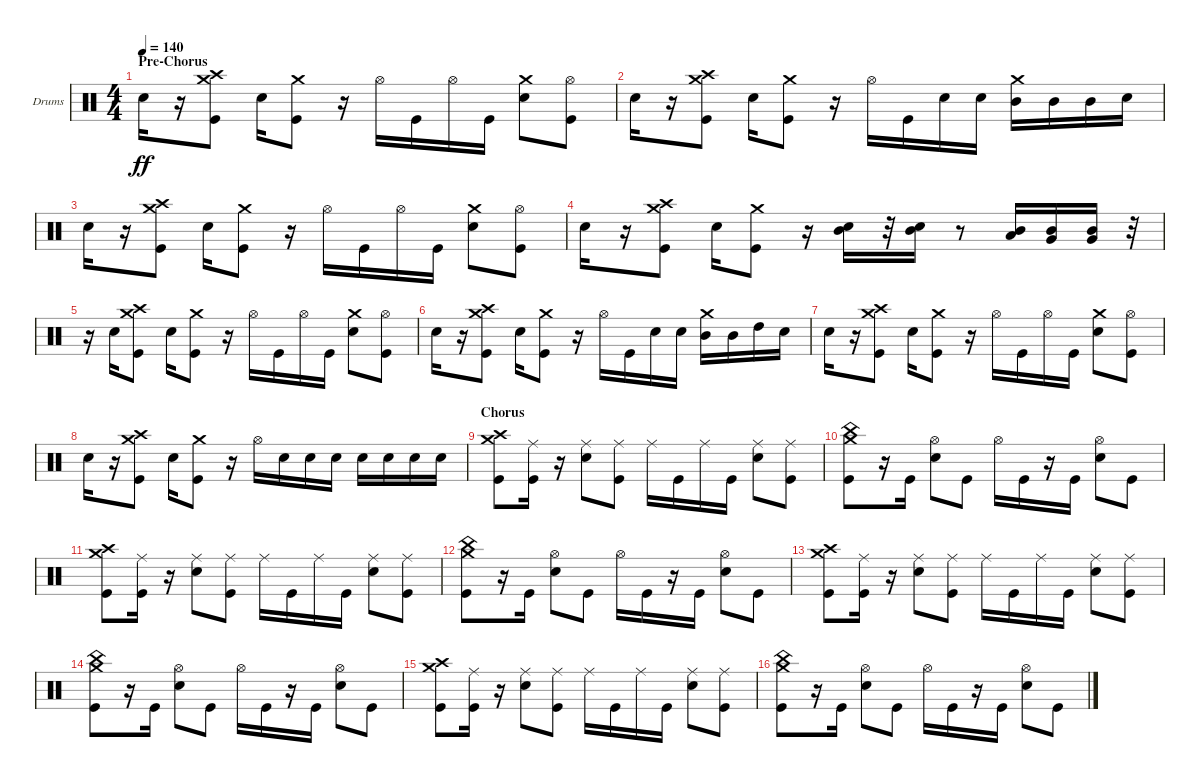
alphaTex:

\defaultSystemsLayout 4
\bracketExtendMode nobrackets
\firstSystemTrackNameOrientation horizontal
\otherSystemsTrackNameOrientation horizontal
\track ("Dave Abbruzzese" "Drums") {solo instrument percussion}
\staff {score}
\articulation defaults
\ts (4 4)
\section ("" "Pre-Chorus")
\tempo 140
\clef neutral
\ks c "Snare (hit) 2".16{dy ff}
r.16 ("Crash high (hit)" "Kick (hit)" "Crash medium (hit)").8 "Snare (hit) 2".16 ("Crash medium (hit)" "Kick (hit)").8 r.16 "Hi-Hat (open)".16 "Kick (hit)".16 "Hi-Hat (open)".16 "Kick (hit)".16 ("Snare (hit) 2" "Crash medium (hit)").8 ("Kick (hit)" "Hi-Hat (open)").8 |
"Snare (hit) 2".16 r.16 ("Crash high (hit)" "Kick (hit)" "Crash medium (hit)").8 "Snare (hit) 2".16 ("Crash medium (hit)" "Kick (hit)").8 r.16 "Hi-Hat (open)".16 "Kick (hit)".16 "Snare (hit) 2".16 "Snare (hit) 2".16 ("Mid Tom (hit)" "Crash medium (hit)").16 "Mid Tom (hit)".16 "Mid Tom (hit)".16 "Snare (hit) 2".16 |
"Snare (hit) 2".16 r.16 ("Crash high (hit)" "Kick (hit)" "Crash medium (hit)").8 "Snare (hit) 2".16 ("Crash medium (hit)" "Kick (hit)").8 r.16 "Hi-Hat (open)".16 "Kick (hit)".16 "Hi-Hat (open)".16 "Kick (hit)".16 ("Snare (hit) 2" "Crash medium (hit)").8 ("Kick (hit)" "Hi-Hat (open)").8 |
"Snare (hit) 2".16 r.16 ("Crash high (hit)" "Kick (hit)" "Crash medium (hit)").8 "Snare (hit) 2".16 ("Crash medium (hit)" "Kick (hit)").8 r.16 ("Mid Tom (hit)" "Snare (hit) 2").16 r.32 ("Mid Tom (hit)" "Snare (hit) 2").16 r.8 ("Low Tom (hit)" "Mid Tom (hit)").16 ("Very Low Tom (hit)" "Mid Tom (hit)").16 ("Very Low Tom (hit)" "Mid Tom (hit)").16 r.32 |
r.16 "Snare (hit) 2".16 ("Crash high (hit)" "Kick (hit)" "Crash medium (hit)").8 "Snare (hit) 2".16 ("Crash medium (hit)" "Kick (hit)").8 r.16 "Hi-Hat (open)".16 "Kick (hit)".16 "Hi-Hat (open)".16 "Kick (hit)".16 ("Snare (hit) 2" "Crash medium (hit)").8 ("Kick (hit)" "Hi-Hat (open)").8 |
"Snare (hit) 2".16 r.16 ("Crash high (hit)" "Kick (hit)" "Crash medium (hit)").8 "Snare (hit) 2".16 ("Crash medium (hit)" "Kick (hit)").8 r.16 "Hi-Hat (open)".16 "Kick (hit)".16 "Snare (hit) 2".16 "Snare (hit) 2".16 ("Mid Tom (hit)" "Crash medium (hit)").16 "Mid Tom (hit)".16 "High Tom (hit)".16 "Snare (hit) 2".16 |
"Snare (hit) 2".16 r.16 ("Crash high (hit)" "Kick (hit)" "Crash medium (hit)").8 "Snare (hit) 2".16 ("Crash medium (hit)" "Kick (hit)").8 r.16 "Hi-Hat (open)".16 "Kick (hit)".16 "Hi-Hat (open)".16 "Kick (hit)".16 ("Snare (hit) 2" "Crash medium (hit)").8 ("Kick (hit)" "Hi-Hat (open)").8 |
"Snare (hit) 2".16 r.16 ("Crash high (hit)" "Kick (hit)" "Crash medium (hit)").8 "Snare (hit) 2".16 ("Crash medium (hit)" "Kick (hit)").8 r.16 "Hi-Hat (open)".16 "Snare (hit) 2".16 "Snare (hit) 2".16 "Snare (hit) 2".16 "Snare (hit) 2".16 "Snare (hit) 2".16 "Snare (hit) 2".16 "Snare (hit) 2".16 |
\section ("" "Chorus")
("Crash high (hit)" "Kick (hit)" "Crash medium (hit)").8 ("Kick (hit)" "Ride (middle)").16 r.16 ("Snare (hit) 2" "Ride (middle)").8 ("Kick (hit)" "Ride (middle)").8 "Ride (middle)".16 "Kick (hit)".16 "Ride (middle)".16 "Kick (hit)".16 ("Snare (hit) 2" "Ride (middle)").8 ("Kick (hit)" "Ride (middle)").8 |
("China (hit)" "Kick (hit)" "Crash medium (hit)").8 r.16 "Kick (hit)".16 ("Snare (hit) 2" "Hi-Hat (open)").8 "Kick (hit)".8 "Hi-Hat (open)".16 "Kick (hit)".16 r.16 "Kick (hit)".16 ("Snare (hit) 2" "Hi-Hat (open)").8 "Kick (hit)".8 |
("Crash high (hit)" "Kick (hit)" "Crash medium (hit)").8 ("Kick (hit)" "Ride (middle)").16 r.16 ("Snare (hit) 2" "Ride (middle)").8 ("Kick (hit)" "Ride (middle)").8 "Ride (middle)".16 "Kick (hit)".16 "Ride (middle)".16 "Kick (hit)".16 ("Snare (hit) 2" "Ride (middle)").8 ("Kick (hit)" "Ride (middle)").8 |
("China (hit)" "Kick (hit)" "Crash medium (hit)").8 r.16 "Kick (hit)".16 ("Snare (hit) 2" "Hi-Hat (open)").8 "Kick (hit)".8 "Hi-Hat (open)".16 "Kick (hit)".16 r.16 "Kick (hit)".16 ("Snare (hit) 2" "Hi-Hat (open)").8 "Kick (hit)".8 |
("Crash high (hit)" "Kick (hit)" "Crash medium (hit)").8 ("Kick (hit)" "Ride (middle)").16 r.16 ("Snare (hit) 2" "Ride (middle)").8 ("Kick (hit)" "Ride (middle)").8 "Ride (middle)".16 "Kick (hit)".16 "Ride (middle)".16 "Kick (hit)".16 ("Snare (hit) 2" "Ride (middle)").8 ("Kick (hit)" "Ride (middle)").8 |
("China (hit)" "Kick (hit)" "Crash medium (hit)").8 r.16 "Kick (hit)".16 ("Snare (hit) 2" "Hi-Hat (open)").8 "Kick (hit)".8 "Hi-Hat (open)".16 "Kick (hit)".16 r.16 "Kick (hit)".16 ("Snare (hit) 2" "Hi-Hat (open)").8 "Kick (hit)".8 |
("Crash high (hit)" "Kick (hit)" "Crash medium (hit)").8 ("Kick (hit)" "Ride (middle)").16 r.16 ("Snare (hit) 2" "Ride (middle)").8 ("Kick (hit)" "Ride (middle)").8 "Ride (middle)".16 "Kick (hit)".16 "Ride (middle)".16 "Kick (hit)".16 ("Snare (hit) 2" "Ride (middle)").8 ("Kick (hit)" "Ride (middle)").8 |
("China (hit)" "Kick (hit)" "Crash medium (hit)").8 r.16 "Kick (hit)".16 ("Snare (hit) 2" "Hi-Hat (open)").8 "Kick (hit)".8 "Hi-Hat (open)".16 "Kick (hit)".16 r.16 "Kick (hit)".16 ("Snare (hit) 2" "Hi-Hat (open)").8 "Kick (hit)".8
